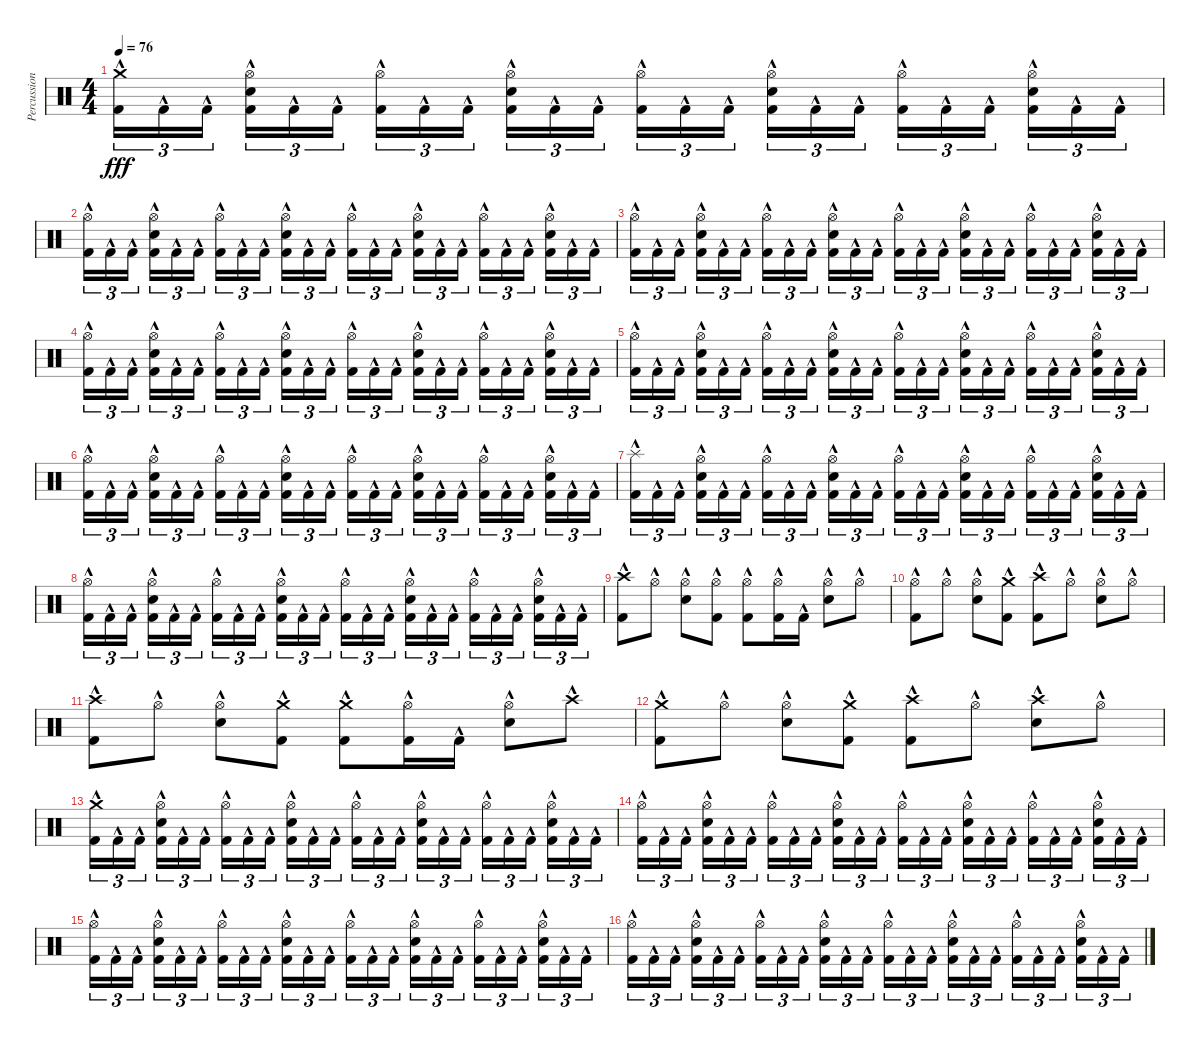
\track ("Percussion" "Percussion") {instrument percussion}
\staff {score}
\articulation defaults
\ts (4 4)
\tempo 76
\clef neutral
\ks c
("Kick (hit) 2"{hac} "Crash medium (hit)"{hac}).16{tu (3 2) dy fff} "Kick (hit) 2"{hac}.16{tu (3 2)} "Kick (hit) 2"{hac}.16{tu (3 2) beam splitsecondary} ("Kick (hit) 2"{hac} "Electric Snare (hit)"{hac} "Hi-Hat (open)"{hac}).16{tu (3 2)} "Kick (hit) 2"{hac}.16{tu (3 2)} "Kick (hit) 2"{hac}.16{tu (3 2)} ("Hi-Hat (open)"{hac} "Kick (hit) 2"{hac}).16{tu (3 2)} "Kick (hit) 2"{hac}.16{tu (3 2)} "Kick (hit) 2"{hac}.16{tu (3 2) beam splitsecondary} ("Kick (hit) 2"{hac} "Electric Snare (hit)"{hac} "Hi-Hat (open)"{hac}).16{tu (3 2)} "Kick (hit) 2"{hac}.16{tu (3 2)} "Kick (hit) 2"{hac}.16{tu (3 2)} ("Kick (hit) 2"{hac} "Hi-Hat (open)"{hac}).16{tu (3 2)} "Kick (hit) 2"{hac}.16{tu (3 2)} "Kick (hit) 2"{hac}.16{tu (3 2) beam splitsecondary} ("Kick (hit) 2"{hac} "Electric Snare (hit)"{hac} "Hi-Hat (open)"{hac}).16{tu (3 2)} "Kick (hit) 2"{hac}.16{tu (3 2)} "Kick (hit) 2"{hac}.16{tu (3 2)} ("Hi-Hat (open)"{hac} "Kick (hit) 2"{hac}).16{tu (3 2)} "Kick (hit) 2"{hac}.16{tu (3 2)} "Kick (hit) 2"{hac}.16{tu (3 2) beam splitsecondary} ("Kick (hit) 2"{hac} "Electric Snare (hit)"{hac} "Hi-Hat (open)"{hac}).16{tu (3 2)} "Kick (hit) 2"{hac}.16{tu (3 2)} "Kick (hit) 2"{hac}.16{tu (3 2)} |
("Kick (hit) 2"{hac} "Hi-Hat (open)"{hac}).16{tu (3 2)} "Kick (hit) 2"{hac}.16{tu (3 2)} "Kick (hit) 2"{hac}.16{tu (3 2) beam splitsecondary} ("Kick (hit) 2"{hac} "Electric Snare (hit)"{hac} "Hi-Hat (open)"{hac}).16{tu (3 2)} "Kick (hit) 2"{hac}.16{tu (3 2)} "Kick (hit) 2"{hac}.16{tu (3 2)} ("Hi-Hat (open)"{hac} "Kick (hit) 2"{hac}).16{tu (3 2)} "Kick (hit) 2"{hac}.16{tu (3 2)} "Kick (hit) 2"{hac}.16{tu (3 2) beam splitsecondary} ("Kick (hit) 2"{hac} "Electric Snare (hit)"{hac} "Hi-Hat (open)"{hac}).16{tu (3 2)} "Kick (hit) 2"{hac}.16{tu (3 2)} "Kick (hit) 2"{hac}.16{tu (3 2)} ("Kick (hit) 2"{hac} "Hi-Hat (open)"{hac}).16{tu (3 2)} "Kick (hit) 2"{hac}.16{tu (3 2)} "Kick (hit) 2"{hac}.16{tu (3 2) beam splitsecondary} ("Kick (hit) 2"{hac} "Electric Snare (hit)"{hac} "Hi-Hat (open)"{hac}).16{tu (3 2)} "Kick (hit) 2"{hac}.16{tu (3 2)} "Kick (hit) 2"{hac}.16{tu (3 2)} ("Hi-Hat (open)"{hac} "Kick (hit) 2"{hac}).16{tu (3 2)} "Kick (hit) 2"{hac}.16{tu (3 2)} "Kick (hit) 2"{hac}.16{tu (3 2) beam splitsecondary} ("Kick (hit) 2"{hac} "Electric Snare (hit)"{hac} "Hi-Hat (open)"{hac}).16{tu (3 2)} "Kick (hit) 2"{hac}.16{tu (3 2)} "Kick (hit) 2"{hac}.16{tu (3 2)} |
("Kick (hit) 2"{hac} "Hi-Hat (open)"{hac}).16{tu (3 2)} "Kick (hit) 2"{hac}.16{tu (3 2)} "Kick (hit) 2"{hac}.16{tu (3 2) beam splitsecondary} ("Kick (hit) 2"{hac} "Electric Snare (hit)"{hac} "Hi-Hat (open)"{hac}).16{tu (3 2)} "Kick (hit) 2"{hac}.16{tu (3 2)} "Kick (hit) 2"{hac}.16{tu (3 2)} ("Hi-Hat (open)"{hac} "Kick (hit) 2"{hac}).16{tu (3 2)} "Kick (hit) 2"{hac}.16{tu (3 2)} "Kick (hit) 2"{hac}.16{tu (3 2) beam splitsecondary} ("Kick (hit) 2"{hac} "Electric Snare (hit)"{hac} "Hi-Hat (open)"{hac}).16{tu (3 2)} "Kick (hit) 2"{hac}.16{tu (3 2)} "Kick (hit) 2"{hac}.16{tu (3 2)} ("Kick (hit) 2"{hac} "Hi-Hat (open)"{hac}).16{tu (3 2)} "Kick (hit) 2"{hac}.16{tu (3 2)} "Kick (hit) 2"{hac}.16{tu (3 2) beam splitsecondary} ("Kick (hit) 2"{hac} "Electric Snare (hit)"{hac} "Hi-Hat (open)"{hac}).16{tu (3 2)} "Kick (hit) 2"{hac}.16{tu (3 2)} "Kick (hit) 2"{hac}.16{tu (3 2)} ("Hi-Hat (open)"{hac} "Kick (hit) 2"{hac}).16{tu (3 2)} "Kick (hit) 2"{hac}.16{tu (3 2)} "Kick (hit) 2"{hac}.16{tu (3 2) beam splitsecondary} ("Kick (hit) 2"{hac} "Electric Snare (hit)"{hac} "Hi-Hat (open)"{hac}).16{tu (3 2)} "Kick (hit) 2"{hac}.16{tu (3 2)} "Kick (hit) 2"{hac}.16{tu (3 2)} |
("Kick (hit) 2"{hac} "Hi-Hat (open)"{hac}).16{tu (3 2)} "Kick (hit) 2"{hac}.16{tu (3 2)} "Kick (hit) 2"{hac}.16{tu (3 2) beam splitsecondary} ("Kick (hit) 2"{hac} "Electric Snare (hit)"{hac} "Hi-Hat (open)"{hac}).16{tu (3 2)} "Kick (hit) 2"{hac}.16{tu (3 2)} "Kick (hit) 2"{hac}.16{tu (3 2)} ("Hi-Hat (open)"{hac} "Kick (hit) 2"{hac}).16{tu (3 2)} "Kick (hit) 2"{hac}.16{tu (3 2)} "Kick (hit) 2"{hac}.16{tu (3 2) beam splitsecondary} ("Kick (hit) 2"{hac} "Electric Snare (hit)"{hac} "Hi-Hat (open)"{hac}).16{tu (3 2)} "Kick (hit) 2"{hac}.16{tu (3 2)} "Kick (hit) 2"{hac}.16{tu (3 2)} ("Kick (hit) 2"{hac} "Hi-Hat (open)"{hac}).16{tu (3 2)} "Kick (hit) 2"{hac}.16{tu (3 2)} "Kick (hit) 2"{hac}.16{tu (3 2) beam splitsecondary} ("Kick (hit) 2"{hac} "Electric Snare (hit)"{hac} "Hi-Hat (open)"{hac}).16{tu (3 2)} "Kick (hit) 2"{hac}.16{tu (3 2)} "Kick (hit) 2"{hac}.16{tu (3 2)} ("Hi-Hat (open)"{hac} "Kick (hit) 2"{hac}).16{tu (3 2)} "Kick (hit) 2"{hac}.16{tu (3 2)} "Kick (hit) 2"{hac}.16{tu (3 2) beam splitsecondary} ("Kick (hit) 2"{hac} "Electric Snare (hit)"{hac} "Hi-Hat (open)"{hac}).16{tu (3 2)} "Kick (hit) 2"{hac}.16{tu (3 2)} "Kick (hit) 2"{hac}.16{tu (3 2)} |
("Kick (hit) 2"{hac} "Hi-Hat (open)"{hac}).16{tu (3 2)} "Kick (hit) 2"{hac}.16{tu (3 2)} "Kick (hit) 2"{hac}.16{tu (3 2) beam splitsecondary} ("Kick (hit) 2"{hac} "Electric Snare (hit)"{hac} "Hi-Hat (open)"{hac}).16{tu (3 2)} "Kick (hit) 2"{hac}.16{tu (3 2)} "Kick (hit) 2"{hac}.16{tu (3 2)} ("Hi-Hat (open)"{hac} "Kick (hit) 2"{hac}).16{tu (3 2)} "Kick (hit) 2"{hac}.16{tu (3 2)} "Kick (hit) 2"{hac}.16{tu (3 2) beam splitsecondary} ("Kick (hit) 2"{hac} "Electric Snare (hit)"{hac} "Hi-Hat (open)"{hac}).16{tu (3 2)} "Kick (hit) 2"{hac}.16{tu (3 2)} "Kick (hit) 2"{hac}.16{tu (3 2)} ("Kick (hit) 2"{hac} "Hi-Hat (open)"{hac}).16{tu (3 2)} "Kick (hit) 2"{hac}.16{tu (3 2)} "Kick (hit) 2"{hac}.16{tu (3 2) beam splitsecondary} ("Kick (hit) 2"{hac} "Electric Snare (hit)"{hac} "Hi-Hat (open)"{hac}).16{tu (3 2)} "Kick (hit) 2"{hac}.16{tu (3 2)} "Kick (hit) 2"{hac}.16{tu (3 2)} ("Hi-Hat (open)"{hac} "Kick (hit) 2"{hac}).16{tu (3 2)} "Kick (hit) 2"{hac}.16{tu (3 2)} "Kick (hit) 2"{hac}.16{tu (3 2) beam splitsecondary} ("Kick (hit) 2"{hac} "Electric Snare (hit)"{hac} "Hi-Hat (open)"{hac}).16{tu (3 2)} "Kick (hit) 2"{hac}.16{tu (3 2)} "Kick (hit) 2"{hac}.16{tu (3 2)} |
("Kick (hit) 2"{hac} "Hi-Hat (open)"{hac}).16{tu (3 2)} "Kick (hit) 2"{hac}.16{tu (3 2)} "Kick (hit) 2"{hac}.16{tu (3 2) beam splitsecondary} ("Kick (hit) 2"{hac} "Electric Snare (hit)"{hac} "Hi-Hat (open)"{hac}).16{tu (3 2)} "Kick (hit) 2"{hac}.16{tu (3 2)} "Kick (hit) 2"{hac}.16{tu (3 2)} ("Hi-Hat (open)"{hac} "Kick (hit) 2"{hac}).16{tu (3 2)} "Kick (hit) 2"{hac}.16{tu (3 2)} "Kick (hit) 2"{hac}.16{tu (3 2) beam splitsecondary} ("Kick (hit) 2"{hac} "Electric Snare (hit)"{hac} "Hi-Hat (open)"{hac}).16{tu (3 2)} "Kick (hit) 2"{hac}.16{tu (3 2)} "Kick (hit) 2"{hac}.16{tu (3 2)} ("Kick (hit) 2"{hac} "Hi-Hat (open)"{hac}).16{tu (3 2)} "Kick (hit) 2"{hac}.16{tu (3 2)} "Kick (hit) 2"{hac}.16{tu (3 2) beam splitsecondary} ("Kick (hit) 2"{hac} "Electric Snare (hit)"{hac} "Hi-Hat (open)"{hac}).16{tu (3 2)} "Kick (hit) 2"{hac}.16{tu (3 2)} "Kick (hit) 2"{hac}.16{tu (3 2)} ("Hi-Hat (open)"{hac} "Kick (hit) 2"{hac}).16{tu (3 2)} "Kick (hit) 2"{hac}.16{tu (3 2)} "Kick (hit) 2"{hac}.16{tu (3 2) beam splitsecondary} ("Kick (hit) 2"{hac} "Electric Snare (hit)"{hac} "Hi-Hat (open)"{hac}).16{tu (3 2)} "Kick (hit) 2"{hac}.16{tu (3 2)} "Kick (hit) 2"{hac}.16{tu (3 2)} |
("Kick (hit) 2"{hac} "Splash (hit)"{hac}).16{tu (3 2)} "Kick (hit) 2"{hac}.16{tu (3 2)} "Kick (hit) 2"{hac}.16{tu (3 2) beam splitsecondary} ("Kick (hit) 2"{hac} "Electric Snare (hit)"{hac} "Hi-Hat (open)"{hac}).16{tu (3 2)} "Kick (hit) 2"{hac}.16{tu (3 2)} "Kick (hit) 2"{hac}.16{tu (3 2)} ("Hi-Hat (open)"{hac} "Kick (hit) 2"{hac}).16{tu (3 2)} "Kick (hit) 2"{hac}.16{tu (3 2)} "Kick (hit) 2"{hac}.16{tu (3 2) beam splitsecondary} ("Kick (hit) 2"{hac} "Electric Snare (hit)"{hac} "Hi-Hat (open)"{hac}).16{tu (3 2)} "Kick (hit) 2"{hac}.16{tu (3 2)} "Kick (hit) 2"{hac}.16{tu (3 2)} ("Kick (hit) 2"{hac} "Hi-Hat (open)"{hac}).16{tu (3 2)} "Kick (hit) 2"{hac}.16{tu (3 2)} "Kick (hit) 2"{hac}.16{tu (3 2) beam splitsecondary} ("Kick (hit) 2"{hac} "Electric Snare (hit)"{hac} "Hi-Hat (open)"{hac}).16{tu (3 2)} "Kick (hit) 2"{hac}.16{tu (3 2)} "Kick (hit) 2"{hac}.16{tu (3 2)} ("Hi-Hat (open)"{hac} "Kick (hit) 2"{hac}).16{tu (3 2)} "Kick (hit) 2"{hac}.16{tu (3 2)} "Kick (hit) 2"{hac}.16{tu (3 2) beam splitsecondary} ("Kick (hit) 2"{hac} "Electric Snare (hit)"{hac} "Hi-Hat (open)"{hac}).16{tu (3 2)} "Kick (hit) 2"{hac}.16{tu (3 2)} "Kick (hit) 2"{hac}.16{tu (3 2)} |
("Kick (hit) 2"{hac} "Hi-Hat (open)"{hac}).16{tu (3 2)} "Kick (hit) 2"{hac}.16{tu (3 2)} "Kick (hit) 2"{hac}.16{tu (3 2) beam splitsecondary} ("Kick (hit) 2"{hac} "Electric Snare (hit)"{hac} "Hi-Hat (open)"{hac}).16{tu (3 2)} "Kick (hit) 2"{hac}.16{tu (3 2)} "Kick (hit) 2"{hac}.16{tu (3 2)} ("Hi-Hat (open)"{hac} "Kick (hit) 2"{hac}).16{tu (3 2)} "Kick (hit) 2"{hac}.16{tu (3 2)} "Kick (hit) 2"{hac}.16{tu (3 2) beam splitsecondary} ("Kick (hit) 2"{hac} "Electric Snare (hit)"{hac} "Hi-Hat (open)"{hac}).16{tu (3 2)} "Kick (hit) 2"{hac}.16{tu (3 2)} "Kick (hit) 2"{hac}.16{tu (3 2)} ("Kick (hit) 2"{hac} "Hi-Hat (open)"{hac}).16{tu (3 2)} "Kick (hit) 2"{hac}.16{tu (3 2)} "Kick (hit) 2"{hac}.16{tu (3 2) beam splitsecondary} ("Kick (hit) 2"{hac} "Electric Snare (hit)"{hac} "Hi-Hat (open)"{hac}).16{tu (3 2)} "Kick (hit) 2"{hac}.16{tu (3 2)} "Kick (hit) 2"{hac}.16{tu (3 2)} ("Hi-Hat (open)"{hac} "Kick (hit) 2"{hac}).16{tu (3 2)} "Kick (hit) 2"{hac}.16{tu (3 2)} "Kick (hit) 2"{hac}.16{tu (3 2) beam splitsecondary} ("Kick (hit) 2"{hac} "Electric Snare (hit)"{hac} "Hi-Hat (open)"{hac}).16{tu (3 2)} "Kick (hit) 2"{hac}.16{tu (3 2)} "Kick (hit) 2"{hac}.16{tu (3 2)} |
("Crash high (hit)"{hac} "Kick (hit) 2"{hac}).8 "Hi-Hat (open)"{hac}.8 ("Hi-Hat (open)"{hac} "Electric Snare (hit)"{hac}).8 ("Hi-Hat (open)"{hac} "Kick (hit) 2"{hac}).8 ("Hi-Hat (open)"{hac} "Kick (hit) 2"{hac}).8 ("Hi-Hat (open)"{hac} "Kick (hit) 2"{hac}).16 "Kick (hit) 2"{hac}.16 ("Hi-Hat (open)"{hac} "Electric Snare (hit)"{hac}).8 "Hi-Hat (open)"{hac}.8 |
("Hi-Hat (open)"{hac} "Kick (hit) 2"{hac}).8 "Hi-Hat (open)"{hac}.8 ("Hi-Hat (open)"{hac} "Electric Snare (hit)"{hac}).8 ("Crash medium (hit)"{hac} "Kick (hit) 2"{hac}).8 ("Kick (hit) 2"{hac} "Crash high (hit)"{hac}).8 "Hi-Hat (open)"{hac}.8 ("Hi-Hat (open)"{hac} "Electric Snare (hit)"{hac}).8 "Hi-Hat (open)"{hac}.8 |
("Crash high (hit)"{hac} "Kick (hit) 2"{hac}).8 "Hi-Hat (open)"{hac}.8 ("Hi-Hat (open)"{hac} "Electric Snare (hit)"{hac}).8 ("Crash medium (hit)"{hac} "Kick (hit) 2"{hac}).8 ("Crash medium (hit)"{hac} "Kick (hit) 2"{hac}).8 ("Hi-Hat (open)"{hac} "Kick (hit) 2"{hac}).16 "Kick (hit) 2"{hac}.16 ("Hi-Hat (open)"{hac} "Electric Snare (hit)"{hac}).8 "Crash high (hit)"{hac}.8 |
("Crash medium (hit)"{hac} "Kick (hit) 2"{hac}).8 "Hi-Hat (open)"{hac}.8 ("Hi-Hat (open)"{hac} "Electric Snare (hit)"{hac}).8 ("Crash medium (hit)"{hac} "Kick (hit) 2"{hac}).8 ("Kick (hit) 2"{hac} "Crash high (hit)"{hac}).8 "Hi-Hat (open)"{hac}.8 ("Crash high (hit)"{hac} "Electric Snare (hit)"{hac}).8 "Hi-Hat (open)"{hac}.8 |
("Kick (hit) 2"{hac} "Crash medium (hit)"{hac}).16{tu (3 2)} "Kick (hit) 2"{hac}.16{tu (3 2)} "Kick (hit) 2"{hac}.16{tu (3 2) beam splitsecondary} ("Kick (hit) 2"{hac} "Electric Snare (hit)"{hac} "Hi-Hat (open)"{hac}).16{tu (3 2)} "Kick (hit) 2"{hac}.16{tu (3 2)} "Kick (hit) 2"{hac}.16{tu (3 2)} ("Hi-Hat (open)"{hac} "Kick (hit) 2"{hac}).16{tu (3 2)} "Kick (hit) 2"{hac}.16{tu (3 2)} "Kick (hit) 2"{hac}.16{tu (3 2) beam splitsecondary} ("Kick (hit) 2"{hac} "Electric Snare (hit)"{hac} "Hi-Hat (open)"{hac}).16{tu (3 2)} "Kick (hit) 2"{hac}.16{tu (3 2)} "Kick (hit) 2"{hac}.16{tu (3 2)} ("Kick (hit) 2"{hac} "Hi-Hat (open)"{hac}).16{tu (3 2)} "Kick (hit) 2"{hac}.16{tu (3 2)} "Kick (hit) 2"{hac}.16{tu (3 2) beam splitsecondary} ("Kick (hit) 2"{hac} "Electric Snare (hit)"{hac} "Hi-Hat (open)"{hac}).16{tu (3 2)} "Kick (hit) 2"{hac}.16{tu (3 2)} "Kick (hit) 2"{hac}.16{tu (3 2)} ("Hi-Hat (open)"{hac} "Kick (hit) 2"{hac}).16{tu (3 2)} "Kick (hit) 2"{hac}.16{tu (3 2)} "Kick (hit) 2"{hac}.16{tu (3 2) beam splitsecondary} ("Kick (hit) 2"{hac} "Electric Snare (hit)"{hac} "Hi-Hat (open)"{hac}).16{tu (3 2)} "Kick (hit) 2"{hac}.16{tu (3 2)} "Kick (hit) 2"{hac}.16{tu (3 2)} |
("Kick (hit) 2"{hac} "Hi-Hat (open)"{hac}).16{tu (3 2)} "Kick (hit) 2"{hac}.16{tu (3 2)} "Kick (hit) 2"{hac}.16{tu (3 2) beam splitsecondary} ("Kick (hit) 2"{hac} "Electric Snare (hit)"{hac} "Hi-Hat (open)"{hac}).16{tu (3 2)} "Kick (hit) 2"{hac}.16{tu (3 2)} "Kick (hit) 2"{hac}.16{tu (3 2)} ("Hi-Hat (open)"{hac} "Kick (hit) 2"{hac}).16{tu (3 2)} "Kick (hit) 2"{hac}.16{tu (3 2)} "Kick (hit) 2"{hac}.16{tu (3 2) beam splitsecondary} ("Kick (hit) 2"{hac} "Electric Snare (hit)"{hac} "Hi-Hat (open)"{hac}).16{tu (3 2)} "Kick (hit) 2"{hac}.16{tu (3 2)} "Kick (hit) 2"{hac}.16{tu (3 2)} ("Kick (hit) 2"{hac} "Hi-Hat (open)"{hac}).16{tu (3 2)} "Kick (hit) 2"{hac}.16{tu (3 2)} "Kick (hit) 2"{hac}.16{tu (3 2) beam splitsecondary} ("Kick (hit) 2"{hac} "Electric Snare (hit)"{hac} "Hi-Hat (open)"{hac}).16{tu (3 2)} "Kick (hit) 2"{hac}.16{tu (3 2)} "Kick (hit) 2"{hac}.16{tu (3 2)} ("Hi-Hat (open)"{hac} "Kick (hit) 2"{hac}).16{tu (3 2)} "Kick (hit) 2"{hac}.16{tu (3 2)} "Kick (hit) 2"{hac}.16{tu (3 2) beam splitsecondary} ("Kick (hit) 2"{hac} "Electric Snare (hit)"{hac} "Hi-Hat (open)"{hac}).16{tu (3 2)} "Kick (hit) 2"{hac}.16{tu (3 2)} "Kick (hit) 2"{hac}.16{tu (3 2)} |
("Kick (hit) 2"{hac} "Hi-Hat (open)"{hac}).16{tu (3 2)} "Kick (hit) 2"{hac}.16{tu (3 2)} "Kick (hit) 2"{hac}.16{tu (3 2) beam splitsecondary} ("Kick (hit) 2"{hac} "Electric Snare (hit)"{hac} "Hi-Hat (open)"{hac}).16{tu (3 2)} "Kick (hit) 2"{hac}.16{tu (3 2)} "Kick (hit) 2"{hac}.16{tu (3 2)} ("Hi-Hat (open)"{hac} "Kick (hit) 2"{hac}).16{tu (3 2)} "Kick (hit) 2"{hac}.16{tu (3 2)} "Kick (hit) 2"{hac}.16{tu (3 2) beam splitsecondary} ("Kick (hit) 2"{hac} "Electric Snare (hit)"{hac} "Hi-Hat (open)"{hac}).16{tu (3 2)} "Kick (hit) 2"{hac}.16{tu (3 2)} "Kick (hit) 2"{hac}.16{tu (3 2)} ("Kick (hit) 2"{hac} "Hi-Hat (open)"{hac}).16{tu (3 2)} "Kick (hit) 2"{hac}.16{tu (3 2)} "Kick (hit) 2"{hac}.16{tu (3 2) beam splitsecondary} ("Kick (hit) 2"{hac} "Electric Snare (hit)"{hac} "Hi-Hat (open)"{hac}).16{tu (3 2)} "Kick (hit) 2"{hac}.16{tu (3 2)} "Kick (hit) 2"{hac}.16{tu (3 2)} ("Hi-Hat (open)"{hac} "Kick (hit) 2"{hac}).16{tu (3 2)} "Kick (hit) 2"{hac}.16{tu (3 2)} "Kick (hit) 2"{hac}.16{tu (3 2) beam splitsecondary} ("Kick (hit) 2"{hac} "Electric Snare (hit)"{hac} "Hi-Hat (open)"{hac}).16{tu (3 2)} "Kick (hit) 2"{hac}.16{tu (3 2)} "Kick (hit) 2"{hac}.16{tu (3 2)} |
("Kick (hit) 2"{hac} "Hi-Hat (open)"{hac}).16{tu (3 2)} "Kick (hit) 2"{hac}.16{tu (3 2)} "Kick (hit) 2"{hac}.16{tu (3 2) beam splitsecondary} ("Kick (hit) 2"{hac} "Electric Snare (hit)"{hac} "Hi-Hat (open)"{hac}).16{tu (3 2)} "Kick (hit) 2"{hac}.16{tu (3 2)} "Kick (hit) 2"{hac}.16{tu (3 2)} ("Hi-Hat (open)"{hac} "Kick (hit) 2"{hac}).16{tu (3 2)} "Kick (hit) 2"{hac}.16{tu (3 2)} "Kick (hit) 2"{hac}.16{tu (3 2) beam splitsecondary} ("Kick (hit) 2"{hac} "Electric Snare (hit)"{hac} "Hi-Hat (open)"{hac}).16{tu (3 2)} "Kick (hit) 2"{hac}.16{tu (3 2)} "Kick (hit) 2"{hac}.16{tu (3 2)} ("Kick (hit) 2"{hac} "Hi-Hat (open)"{hac}).16{tu (3 2)} "Kick (hit) 2"{hac}.16{tu (3 2)} "Kick (hit) 2"{hac}.16{tu (3 2) beam splitsecondary} ("Kick (hit) 2"{hac} "Electric Snare (hit)"{hac} "Hi-Hat (open)"{hac}).16{tu (3 2)} "Kick (hit) 2"{hac}.16{tu (3 2)} "Kick (hit) 2"{hac}.16{tu (3 2)} ("Hi-Hat (open)"{hac} "Kick (hit) 2"{hac}).16{tu (3 2)} "Kick (hit) 2"{hac}.16{tu (3 2)} "Kick (hit) 2"{hac}.16{tu (3 2) beam splitsecondary} ("Kick (hit) 2"{hac} "Electric Snare (hit)"{hac} "Hi-Hat (open)"{hac}).16{tu (3 2)} "Kick (hit) 2"{hac}.16{tu (3 2)} "Kick (hit) 2"{hac}.16{tu (3 2)}
